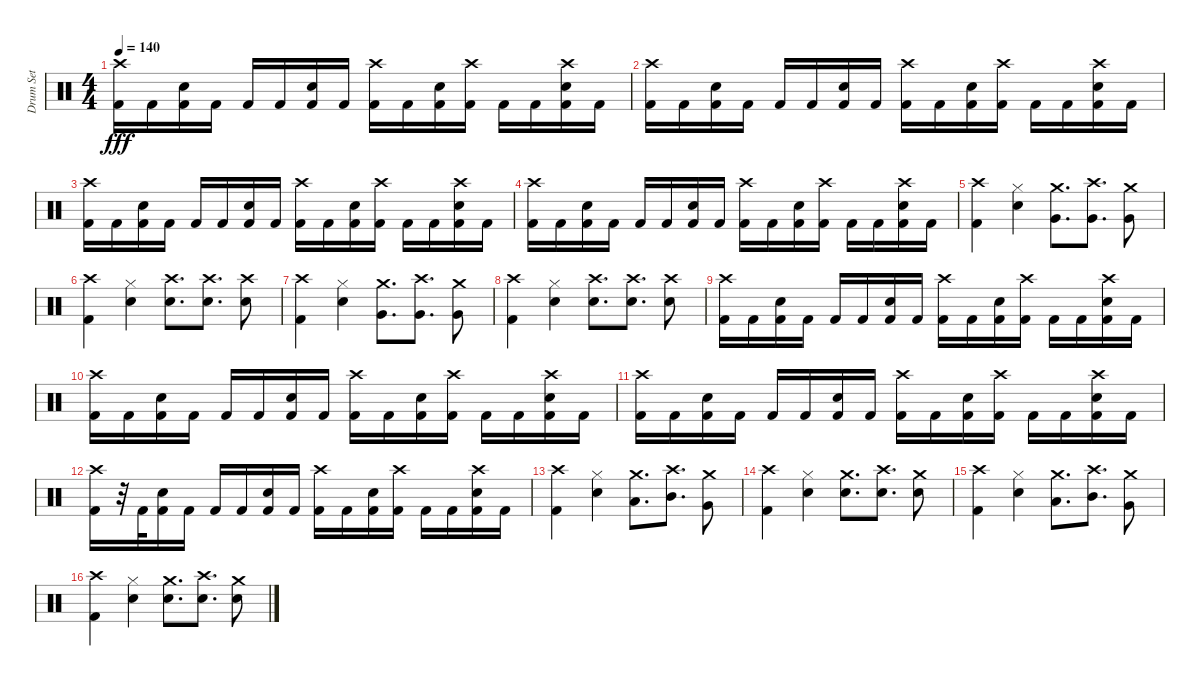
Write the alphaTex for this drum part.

\track ("Drum Set" "Drum Set") {instrument percussion}
\staff {score}
\articulation defaults
\ts (4 4)
\tempo 140
\clef neutral
\ks c
("Crash high (hit)" "Kick (hit) 2").16{dy fff} "Kick (hit) 2".16 ("Electric Snare (hit)" "Kick (hit) 2").16 "Kick (hit) 2".16 "Kick (hit) 2".16 "Kick (hit) 2".16 ("Electric Snare (hit)" "Kick (hit) 2").16 "Kick (hit) 2".16 ("Kick (hit) 2" "Crash high (hit)").16 "Kick (hit) 2".16 ("Electric Snare (hit)" "Kick (hit) 2").16 ("Kick (hit) 2" "Crash high (hit)").16 "Kick (hit) 2".16 "Kick (hit) 2".16 ("Electric Snare (hit)" "Crash high (hit)" "Kick (hit) 2").16 "Kick (hit) 2".16 |
("Kick (hit) 2" "Crash high (hit)").16 "Kick (hit) 2".16 ("Electric Snare (hit)" "Kick (hit) 2").16 "Kick (hit) 2".16 "Kick (hit) 2".16 "Kick (hit) 2".16 ("Electric Snare (hit)" "Kick (hit) 2").16 "Kick (hit) 2".16 ("Crash high (hit)" "Kick (hit) 2").16 "Kick (hit) 2".16 ("Electric Snare (hit)" "Kick (hit) 2").16 ("Crash high (hit)" "Kick (hit) 2").16 "Kick (hit) 2".16 "Kick (hit) 2".16 ("Electric Snare (hit)" "Kick (hit) 2" "Crash high (hit)").16 "Kick (hit) 2".16 |
("Crash high (hit)" "Kick (hit) 2").16 "Kick (hit) 2".16 ("Electric Snare (hit)" "Kick (hit) 2").16 "Kick (hit) 2".16 "Kick (hit) 2".16 "Kick (hit) 2".16 ("Electric Snare (hit)" "Kick (hit) 2").16 "Kick (hit) 2".16 ("Crash high (hit)" "Kick (hit) 2").16 "Kick (hit) 2".16 ("Electric Snare (hit)" "Kick (hit) 2").16 ("Kick (hit) 2" "Crash high (hit)").16 "Kick (hit) 2".16 "Kick (hit) 2".16 ("Electric Snare (hit)" "Crash high (hit)" "Kick (hit) 2").16 "Kick (hit) 2".16 |
("Crash high (hit)" "Kick (hit) 2").16 "Kick (hit) 2".16 ("Electric Snare (hit)" "Kick (hit) 2").16 "Kick (hit) 2".16 "Kick (hit) 2".16 "Kick (hit) 2".16 ("Electric Snare (hit)" "Kick (hit) 2").16 "Kick (hit) 2".16 ("Kick (hit) 2" "Crash high (hit)").16 "Kick (hit) 2".16 ("Electric Snare (hit)" "Kick (hit) 2").16 ("Kick (hit) 2" "Crash high (hit)").16 "Kick (hit) 2".16 "Kick (hit) 2".16 ("Electric Snare (hit)" "Kick (hit) 2" "Crash high (hit)").16 "Kick (hit) 2".16 |
("Kick (hit) 2" "Crash high (hit)").4 ("Electric Snare (hit)" "Hi-Hat (closed)").4 ("Very Low Tom (hit)" "Crash medium (hit)").8{d} ("Crash high (hit)" "Very Low Tom (hit)").8{d} ("Very Low Tom (hit)" "Crash medium (hit)").8 |
("Kick (hit) 2" "Crash high (hit)").4 ("Electric Snare (hit)" "Hi-Hat (closed)").4 ("Crash high (hit)" "Electric Snare (hit)").8{d} ("Crash high (hit)" "Electric Snare (hit)").8{d} ("Electric Snare (hit)" "Crash high (hit)").8 |
("Kick (hit) 2" "Crash high (hit)").4 ("Electric Snare (hit)" "Hi-Hat (closed)").4 ("Very Low Tom (hit)" "Crash medium (hit)").8{d} ("Crash high (hit)" "Very Low Tom (hit)").8{d} ("Very Low Tom (hit)" "Crash medium (hit)").8 |
("Kick (hit) 2" "Crash high (hit)").4 ("Electric Snare (hit)" "Hi-Hat (closed)").4 ("Electric Snare (hit)" "Crash high (hit)").8{d} ("Crash high (hit)" "Electric Snare (hit)").8{d} ("Electric Snare (hit)" "Crash high (hit)").8 |
("Crash high (hit)" "Kick (hit) 2").16 "Kick (hit) 2".16 ("Electric Snare (hit)" "Kick (hit) 2").16 "Kick (hit) 2".16 "Kick (hit) 2".16 "Kick (hit) 2".16 ("Electric Snare (hit)" "Kick (hit) 2").16 "Kick (hit) 2".16 ("Crash high (hit)" "Kick (hit) 2").16 "Kick (hit) 2".16 ("Electric Snare (hit)" "Kick (hit) 2").16 ("Kick (hit) 2" "Crash high (hit)").16 "Kick (hit) 2".16 "Kick (hit) 2".16 ("Electric Snare (hit)" "Crash high (hit)" "Kick (hit) 2").16 "Kick (hit) 2".16 |
("Kick (hit) 2" "Crash high (hit)").16 "Kick (hit) 2".16 ("Electric Snare (hit)" "Kick (hit) 2").16 "Kick (hit) 2".16 "Kick (hit) 2".16 "Kick (hit) 2".16 ("Electric Snare (hit)" "Kick (hit) 2").16 "Kick (hit) 2".16 ("Kick (hit) 2" "Crash high (hit)").16 "Kick (hit) 2".16 ("Electric Snare (hit)" "Kick (hit) 2").16 ("Kick (hit) 2" "Crash high (hit)").16 "Kick (hit) 2".16 "Kick (hit) 2".16 ("Electric Snare (hit)" "Crash high (hit)" "Kick (hit) 2").16 "Kick (hit) 2".16 |
("Crash high (hit)" "Kick (hit) 2").16 "Kick (hit) 2".16 ("Electric Snare (hit)" "Kick (hit) 2").16 "Kick (hit) 2".16 "Kick (hit) 2".16 "Kick (hit) 2".16 ("Electric Snare (hit)" "Kick (hit) 2").16 "Kick (hit) 2".16 ("Crash high (hit)" "Kick (hit) 2").16 "Kick (hit) 2".16 ("Electric Snare (hit)" "Kick (hit) 2").16 ("Crash high (hit)" "Kick (hit) 2").16 "Kick (hit) 2".16 "Kick (hit) 2".16 ("Electric Snare (hit)" "Crash high (hit)" "Kick (hit) 2").16 "Kick (hit) 2".16 |
("Kick (hit) 2" "Crash high (hit)").16 r.32 "Kick (hit) 2".32 ("Electric Snare (hit)" "Kick (hit) 2").16 "Kick (hit) 2".16 "Kick (hit) 2".16 "Kick (hit) 2".16 ("Electric Snare (hit)" "Kick (hit) 2").16 "Kick (hit) 2".16 ("Kick (hit) 2" "Crash high (hit)").16 "Kick (hit) 2".16 ("Electric Snare (hit)" "Kick (hit) 2").16 ("Kick (hit) 2" "Crash high (hit)").16 "Kick (hit) 2".16 "Kick (hit) 2".16 ("Electric Snare (hit)" "Crash high (hit)" "Kick (hit) 2").16 "Kick (hit) 2".16 |
("Kick (hit) 2" "Crash high (hit)").4 ("Electric Snare (hit)" "Hi-Hat (closed)").4 ("Low Tom (hit)" "Crash medium (hit)").8{d} ("Mid Tom (hit)" "Crash high (hit)").8{d} ("Very Low Tom (hit)" "Crash medium (hit)").8 |
("Kick (hit) 2" "Crash high (hit)").4 ("Hi-Hat (closed)" "Electric Snare (hit)").4 ("Crash medium (hit)" "Electric Snare (hit)").8{d} ("Crash high (hit)" "Electric Snare (hit)").8{d} ("Electric Snare (hit)" "Crash medium (hit)").8 |
("Kick (hit) 2" "Crash high (hit)").4 ("Electric Snare (hit)" "Hi-Hat (closed)").4 ("Low Tom (hit)" "Crash medium (hit)").8{d} ("Mid Tom (hit)" "Crash high (hit)").8{d} ("Very Low Tom (hit)" "Crash medium (hit)").8 |
("Kick (hit) 2" "Crash high (hit)").4 ("Hi-Hat (closed)" "Electric Snare (hit)").4 ("Crash medium (hit)" "Electric Snare (hit)").8{d} ("Crash high (hit)" "Electric Snare (hit)").8{d} ("Electric Snare (hit)" "Crash medium (hit)").8
